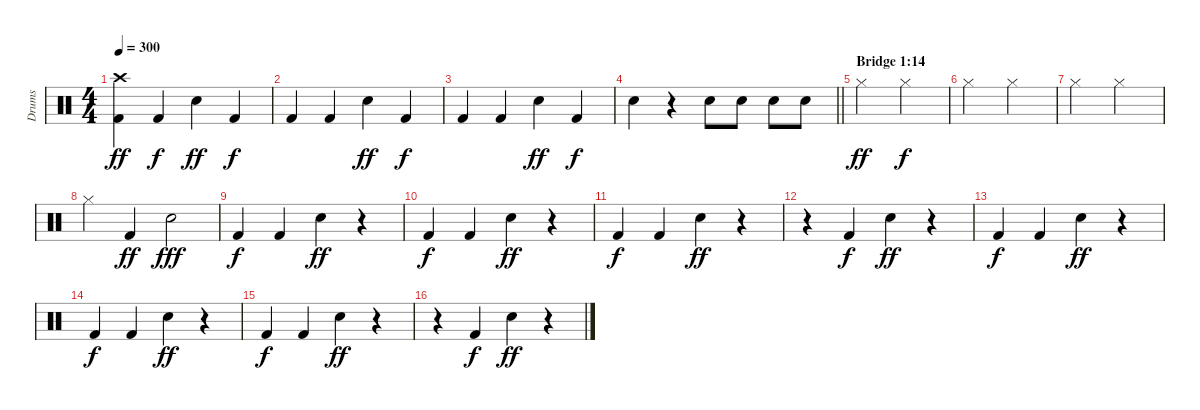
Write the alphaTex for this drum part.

\track ("Drums" "Drums") {instrument percussion}
\staff {score}
\articulation defaults
\ts (4 4)
\tempo 300
\clef neutral
\ks c
("Crash high (hit)" "Kick (hit) 2").4{dy ff} "Kick (hit) 2".4{dy f} "Electric Snare (hit)".4{dy ff} "Kick (hit) 2".4{dy f} |
"Kick (hit) 2".4 "Kick (hit) 2".4 "Electric Snare (hit)".4{dy ff} "Kick (hit) 2".4{dy f} |
"Kick (hit) 2".4 "Kick (hit) 2".4 "Electric Snare (hit)".4{dy ff} "Kick (hit) 2".4{dy f} |
\barLineRight lightlight "Snare (hit) 2".4
r.4 "Electric Snare (hit)".8 "Electric Snare (hit)".8 "Electric Snare (hit)".8 "Electric Snare (hit)".8 |
\section ("" "Bridge 1:14")
"Hi-Hat (closed)".2{dy ff} "Hi-Hat (closed)".2{dy f} |
"Hi-Hat (closed)".2 "Hi-Hat (closed)".2 |
"Hi-Hat (closed)".2 "Hi-Hat (closed)".2 |
"Hi-Hat (closed)".4 "Kick (hit) 2".4{dy ff} "Electric Snare (hit)".2{dy fff} |
"Kick (hit) 2".4{dy f} "Kick (hit) 2".4 "Electric Snare (hit)".4{dy ff} r.4 |
"Kick (hit) 2".4{dy f} "Kick (hit) 2".4 "Electric Snare (hit)".4{dy ff} r.4 |
"Kick (hit) 2".4{dy f} "Kick (hit) 2".4 "Electric Snare (hit)".4{dy ff} r.4 |
r.4 "Kick (hit) 2".4{dy f} "Snare (hit) 2".4{dy ff} r.4 |
"Kick (hit) 2".4{dy f} "Kick (hit) 2".4 "Electric Snare (hit)".4{dy ff} r.4 |
"Kick (hit) 2".4{dy f} "Kick (hit) 2".4 "Electric Snare (hit)".4{dy ff} r.4 |
"Kick (hit) 2".4{dy f} "Kick (hit) 2".4 "Electric Snare (hit)".4{dy ff} r.4 |
r.4 "Kick (hit) 2".4{dy f} "Snare (hit) 2".4{dy ff} r.4
